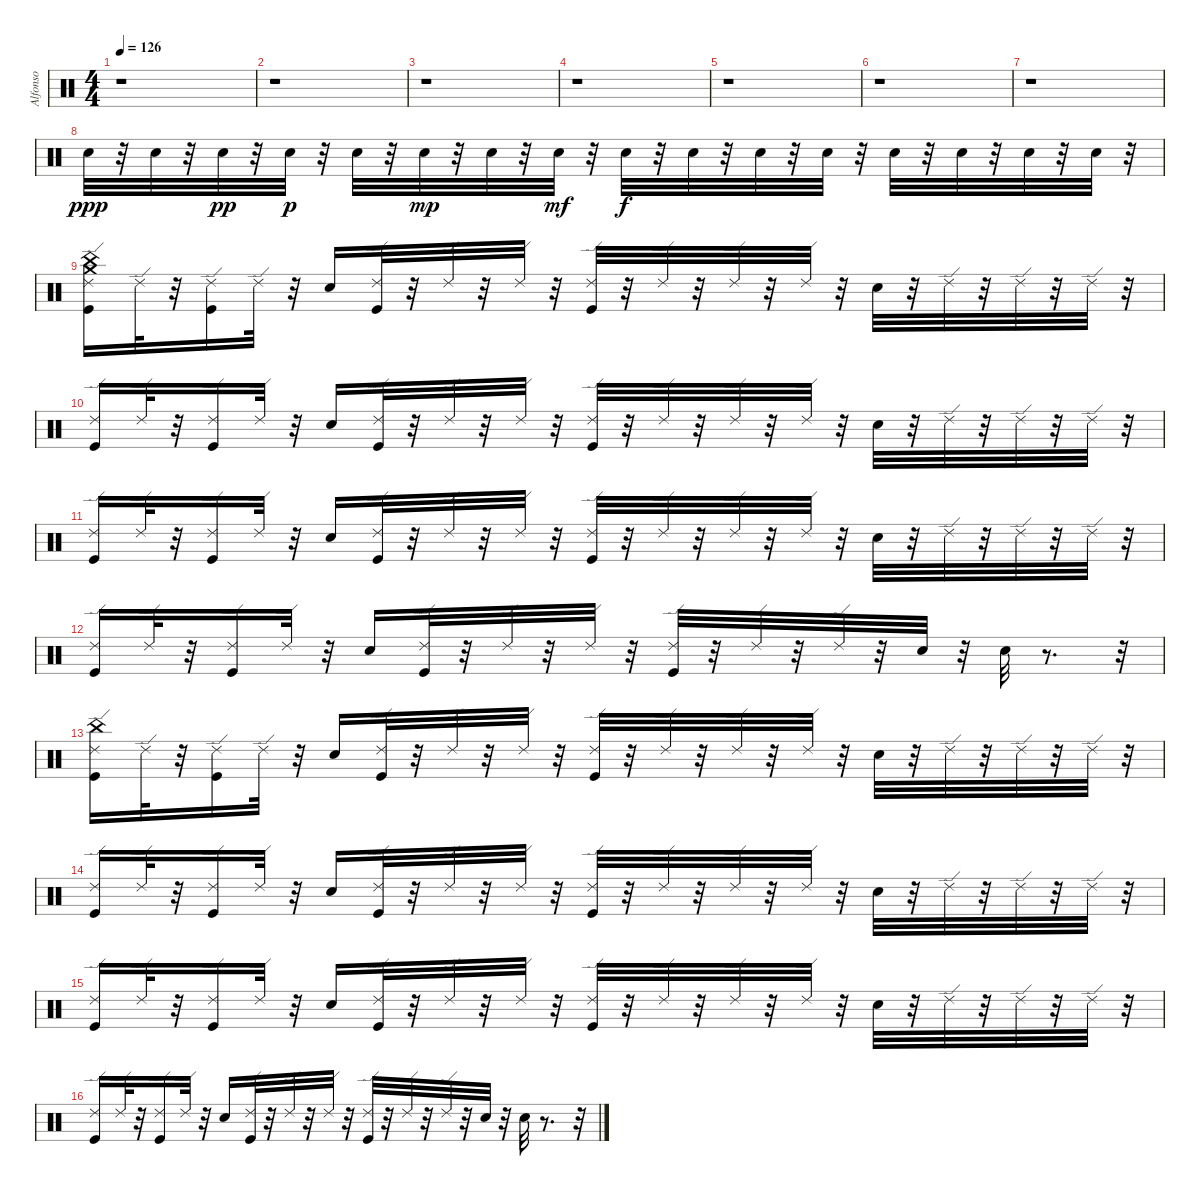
\track ("Alfonso" "Alfonso") {instrument percussion}
\staff {score}
\articulation defaults
\ts (4 4)
\tempo 126
\clef neutral
\ks c
r.1{dy ppp} |
r.1 |
r.1 |
r.1 |
r.1 |
r.1 |
r.1 |
"Snare (hit) 2".32 r.32 "Snare (hit) 2".32 r.32 "Snare (hit) 2".32{dy pp} r.32 "Snare (hit) 2".32{dy p} r.32 "Snare (hit) 2".32 r.32 "Snare (hit) 2".32{dy mp} r.32 "Snare (hit) 2".32 r.32 "Snare (hit) 2".32{dy mf} r.32 "Snare (hit) 2".32{dy f} r.32 "Snare (hit) 2".32 r.32 "Snare (hit) 2".32 r.32 "Snare (hit) 2".32 r.32 "Snare (hit) 2".32 r.32 "Snare (hit) 2".32 r.32 "Snare (hit) 2".32 r.32 "Snare (hit) 2".32 r.32 |
("Ride (edge) 2" "Kick (hit)" "Crash medium (hit)" "China (hit)").16 "Ride (edge) 2".32 r.32 ("Ride (edge) 2" "Kick (hit)").16 "Ride (edge) 2".32 r.32 "Snare (hit) 2".16 ("Kick (hit)" "Ride (edge) 2").32 r.32 "Ride (edge) 2".32 r.32 "Ride (edge) 2".32 r.32 ("Ride (edge) 2" "Kick (hit)").32 r.32 "Ride (edge) 2".32 r.32 "Ride (edge) 2".32 r.32 "Ride (edge) 2".32 r.32 "Snare (hit) 2".32 r.32 "Ride (edge) 2".32 r.32 "Ride (edge) 2".32 r.32 "Ride (edge) 2".32 r.32 |
("Ride (edge) 2" "Kick (hit)").16 "Ride (edge) 2".32 r.32 ("Kick (hit)" "Ride (edge) 2").16 "Ride (edge) 2".32 r.32 "Snare (hit) 2".16 ("Kick (hit)" "Ride (edge) 2").32 r.32 "Ride (edge) 2".32 r.32 "Ride (edge) 2".32 r.32 ("Ride (edge) 2" "Kick (hit)").32 r.32 "Ride (edge) 2".32 r.32 "Ride (edge) 2".32 r.32 "Ride (edge) 2".32 r.32 "Snare (hit) 2".32 r.32 "Ride (edge) 2".32 r.32 "Ride (edge) 2".32 r.32 "Ride (edge) 2".32 r.32 |
("Kick (hit)" "Ride (edge) 2").16 "Ride (edge) 2".32 r.32 ("Ride (edge) 2" "Kick (hit)").16 "Ride (edge) 2".32 r.32 "Snare (hit) 2".16 ("Ride (edge) 2" "Kick (hit)").32 r.32 "Ride (edge) 2".32 r.32 "Ride (edge) 2".32 r.32 ("Ride (edge) 2" "Kick (hit)").32 r.32 "Ride (edge) 2".32 r.32 "Ride (edge) 2".32 r.32 "Ride (edge) 2".32 r.32 "Snare (hit) 2".32 r.32 "Ride (edge) 2".32 r.32 "Ride (edge) 2".32 r.32 "Ride (edge) 2".32 r.32 |
("Ride (edge) 2" "Kick (hit)").16 "Ride (edge) 2".32 r.32 ("Kick (hit)" "Ride (edge) 2").16 "Ride (edge) 2".32 r.32 "Snare (hit) 2".16 ("Kick (hit)" "Ride (edge) 2").32 r.32 "Ride (edge) 2".32 r.32 "Ride (edge) 2".32 r.32 ("Kick (hit)" "Ride (edge) 2").32 r.32 "Ride (edge) 2".32 r.32 "Ride (edge) 2".32 r.32 "Snare (hit) 2".32 r.32 "Snare (hit) 2".32 r.8{d} r.32 |
("Ride (edge) 2" "Kick (hit)" "China (hit)").16 "Ride (edge) 2".32 r.32 ("Ride (edge) 2" "Kick (hit)").16 "Ride (edge) 2".32 r.32 "Snare (hit) 2".16 ("Kick (hit)" "Ride (edge) 2").32 r.32 "Ride (edge) 2".32 r.32 "Ride (edge) 2".32 r.32 ("Ride (edge) 2" "Kick (hit)").32 r.32 "Ride (edge) 2".32 r.32 "Ride (edge) 2".32 r.32 "Ride (edge) 2".32 r.32 "Snare (hit) 2".32 r.32 "Ride (edge) 2".32 r.32 "Ride (edge) 2".32 r.32 "Ride (edge) 2".32 r.32 |
("Ride (edge) 2" "Kick (hit)").16 "Ride (edge) 2".32 r.32 ("Kick (hit)" "Ride (edge) 2").16 "Ride (edge) 2".32 r.32 "Snare (hit) 2".16 ("Kick (hit)" "Ride (edge) 2").32 r.32 "Ride (edge) 2".32 r.32 "Ride (edge) 2".32 r.32 ("Ride (edge) 2" "Kick (hit)").32 r.32 "Ride (edge) 2".32 r.32 "Ride (edge) 2".32 r.32 "Ride (edge) 2".32 r.32 "Snare (hit) 2".32 r.32 "Ride (edge) 2".32 r.32 "Ride (edge) 2".32 r.32 "Ride (edge) 2".32 r.32 |
("Kick (hit)" "Ride (edge) 2").16 "Ride (edge) 2".32 r.32 ("Ride (edge) 2" "Kick (hit)").16 "Ride (edge) 2".32 r.32 "Snare (hit) 2".16 ("Ride (edge) 2" "Kick (hit)").32 r.32 "Ride (edge) 2".32 r.32 "Ride (edge) 2".32 r.32 ("Ride (edge) 2" "Kick (hit)").32 r.32 "Ride (edge) 2".32 r.32 "Ride (edge) 2".32 r.32 "Ride (edge) 2".32 r.32 "Snare (hit) 2".32 r.32 "Ride (edge) 2".32 r.32 "Ride (edge) 2".32 r.32 "Ride (edge) 2".32 r.32 |
("Ride (edge) 2" "Kick (hit)").16 "Ride (edge) 2".32 r.32 ("Kick (hit)" "Ride (edge) 2").16 "Ride (edge) 2".32 r.32 "Snare (hit) 2".16 ("Kick (hit)" "Ride (edge) 2").32 r.32 "Ride (edge) 2".32 r.32 "Ride (edge) 2".32 r.32 ("Kick (hit)" "Ride (edge) 2").32 r.32 "Ride (edge) 2".32 r.32 "Ride (edge) 2".32 r.32 "Snare (hit) 2".32 r.32 "Snare (hit) 2".32 r.8{d} r.32
